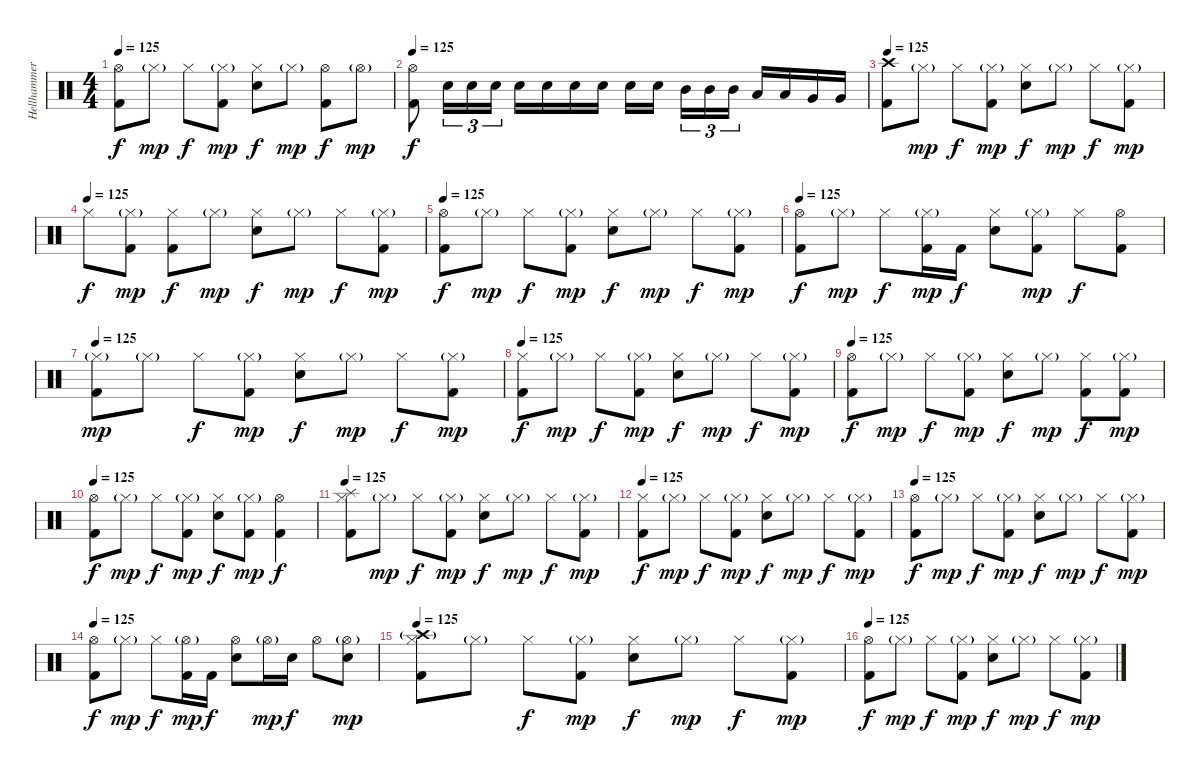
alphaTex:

\track ("Hellhammer" "Hellhammer") {instrument percussion}
\staff {score}
\articulation defaults
\ts (4 4)
\tempo 125
\clef neutral
\ks c
("Kick (hit) 2" "Hi-Hat (open)").8{dy f} "Hi-Hat (closed)"{g}.8{dy mp} "Hi-Hat (closed)".8{dy f} ("Kick (hit) 2" "Hi-Hat (closed)"{g}).8{dy mp} ("Electric Snare (hit)" "Hi-Hat (closed)").8{dy f} "Hi-Hat (closed)"{g}.8{dy mp} ("Kick (hit) 2" "Hi-Hat (open)").8{dy f} "Hi-Hat (open)"{g}.8{dy mp} |
\tempo 125
("Kick (hit) 2" "Hi-Hat (open)").8{dy f} "Electric Snare (hit)".16{tu (3 2)} "Electric Snare (hit)".16{tu (3 2)} "Electric Snare (hit)".16{tu (3 2)} "Electric Snare (hit)".16 "Electric Snare (hit)".16 "Electric Snare (hit)".16 "Electric Snare (hit)".16 "Electric Snare (hit)".16 "Electric Snare (hit)".16 "Mid Tom (hit)".16{tu (3 2)} "Mid Tom (hit)".16{tu (3 2)} "Mid Tom (hit)".16{tu (3 2)} "Low Tom (hit)".16 "Low Tom (hit)".16 "Very Low Tom (hit)".16 "Very Low Tom (hit)".16 |
\tempo 125
("Kick (hit) 2" "Crash high (hit)").8 "Hi-Hat (closed)"{g}.8{dy mp} "Hi-Hat (closed)".8{dy f} ("Kick (hit) 2" "Hi-Hat (closed)"{g}).8{dy mp} ("Electric Snare (hit)" "Hi-Hat (closed)").8{dy f} "Hi-Hat (closed)"{g}.8{dy mp} "Hi-Hat (closed)".8{dy f} ("Kick (hit) 2" "Hi-Hat (closed)"{g}).8{dy mp} |
\tempo (125)
"Hi-Hat (closed)".8{dy f} ("Kick (hit) 2" "Hi-Hat (closed)"{g}).8{dy mp} ("Kick (hit) 2" "Hi-Hat (closed)").8{dy f} "Hi-Hat (closed)"{g}.8{dy mp} ("Electric Snare (hit)" "Hi-Hat (closed)").8{dy f} "Hi-Hat (closed)"{g}.8{dy mp} "Hi-Hat (closed)".8{dy f} ("Kick (hit) 2" "Hi-Hat (closed)"{g}).8{dy mp} |
\tempo 125
("Kick (hit) 2" "Hi-Hat (open)").8{dy f} "Hi-Hat (closed)"{g}.8{dy mp} "Hi-Hat (closed)".8{dy f} ("Kick (hit) 2" "Hi-Hat (closed)"{g}).8{dy mp} ("Electric Snare (hit)" "Hi-Hat (closed)").8{dy f} "Hi-Hat (closed)"{g}.8{dy mp} "Hi-Hat (closed)".8{dy f} ("Kick (hit) 2" "Hi-Hat (closed)"{g}).8{dy mp} |
\tempo 125
("Kick (hit) 2" "Hi-Hat (open)").8{dy f} "Hi-Hat (closed)"{g}.8{dy mp} "Hi-Hat (closed)".8{dy f} ("Kick (hit) 2" "Hi-Hat (closed)"{g}).16{dy mp} "Kick (hit) 2".16{dy f} ("Electric Snare (hit)" "Hi-Hat (closed)").8 ("Kick (hit) 2" "Hi-Hat (closed)"{g}).8{dy mp} "Hi-Hat (closed)".8{dy f} ("Kick (hit) 2" "Hi-Hat (open)").8 |
\tempo 125
("Kick (hit) 2" "Hi-Hat (closed)"{g}).8{dy mp} "Hi-Hat (closed)"{g}.8 "Hi-Hat (closed)".8{dy f} ("Kick (hit) 2" "Hi-Hat (closed)"{g}).8{dy mp} ("Electric Snare (hit)" "Hi-Hat (closed)").8{dy f} "Hi-Hat (closed)"{g}.8{dy mp} "Hi-Hat (closed)".8{dy f} ("Kick (hit) 2" "Hi-Hat (closed)"{g}).8{dy mp} |
\tempo 125
("Kick (hit) 2" "Hi-Hat (closed)").8{dy f} "Hi-Hat (closed)"{g}.8{dy mp} "Hi-Hat (closed)".8{dy f} ("Kick (hit) 2" "Hi-Hat (closed)"{g}).8{dy mp} ("Electric Snare (hit)" "Hi-Hat (closed)").8{dy f} "Hi-Hat (closed)"{g}.8{dy mp} "Hi-Hat (closed)".8{dy f} ("Kick (hit) 2" "Hi-Hat (closed)"{g}).8{dy mp} |
\tempo 125
("Kick (hit) 2" "Hi-Hat (open)").8{dy f} "Hi-Hat (closed)"{g}.8{dy mp} "Hi-Hat (closed)".8{dy f} ("Kick (hit) 2" "Hi-Hat (closed)"{g}).8{dy mp} ("Electric Snare (hit)" "Hi-Hat (closed)").8{dy f} "Hi-Hat (closed)"{g}.8{dy mp} ("Kick (hit) 2" "Hi-Hat (closed)").8{dy f} ("Kick (hit) 2" "Hi-Hat (closed)"{g}).8{dy mp} |
\tempo 125
("Kick (hit) 2" "Hi-Hat (open)").8{dy f} "Hi-Hat (closed)"{g}.8{dy mp} "Hi-Hat (closed)".8{dy f} ("Kick (hit) 2" "Hi-Hat (closed)"{g}).8{dy mp} ("Electric Snare (hit)" "Hi-Hat (closed)").8{dy f} ("Kick (hit) 2" "Hi-Hat (closed)"{g}).8{dy mp} ("Kick (hit) 2" "Hi-Hat (open)").4{dy f} |
\tempo 125
("Kick (hit) 2" "Hi-Hat (closed)" "Splash (hit)").8 "Hi-Hat (closed)"{g}.8{dy mp} "Hi-Hat (closed)".8{dy f} ("Kick (hit) 2" "Hi-Hat (closed)"{g}).8{dy mp} ("Electric Snare (hit)" "Hi-Hat (closed)").8{dy f} "Hi-Hat (closed)"{g}.8{dy mp} "Hi-Hat (closed)".8{dy f} ("Kick (hit) 2" "Hi-Hat (closed)"{g}).8{dy mp} |
\tempo 125
("Kick (hit) 2" "Hi-Hat (closed)").8{dy f} "Hi-Hat (closed)"{g}.8{dy mp} "Hi-Hat (closed)".8{dy f} ("Kick (hit) 2" "Hi-Hat (closed)"{g}).8{dy mp} ("Electric Snare (hit)" "Hi-Hat (closed)").8{dy f} "Hi-Hat (closed)"{g}.8{dy mp} "Hi-Hat (closed)".8{dy f} ("Kick (hit) 2" "Hi-Hat (closed)"{g}).8{dy mp} |
\tempo 125
("Kick (hit) 2" "Hi-Hat (open)").8{dy f} "Hi-Hat (closed)"{g}.8{dy mp} "Hi-Hat (closed)".8{dy f} ("Kick (hit) 2" "Hi-Hat (closed)"{g}).8{dy mp} ("Electric Snare (hit)" "Hi-Hat (closed)").8{dy f} "Hi-Hat (closed)"{g}.8{dy mp} "Hi-Hat (closed)".8{dy f} ("Kick (hit) 2" "Hi-Hat (closed)"{g}).8{dy mp} |
\tempo 125
("Kick (hit) 2" "Hi-Hat (open)").8{dy f} "Hi-Hat (closed)"{g}.8{dy mp} "Hi-Hat (closed)".8{dy f} ("Kick (hit) 2" "Hi-Hat (open)"{g}).16{dy mp} "Kick (hit) 2".16{dy f} ("Electric Snare (hit)" "Hi-Hat (open)").8 "Hi-Hat (open)"{g}.16{dy mp} "Electric Snare (hit)".16{dy f} "Hi-Hat (open)".8 ("Electric Snare (hit)" "Hi-Hat (open)"{g}).8{dy mp} |
\tempo 125
("Kick (hit) 2" "Hi-Hat (closed)" "Crash high (hit)"{g}).8 "Hi-Hat (closed)"{g}.8 "Hi-Hat (closed)".8{dy f} ("Kick (hit) 2" "Hi-Hat (closed)"{g}).8{dy mp} ("Electric Snare (hit)" "Hi-Hat (closed)").8{dy f} "Hi-Hat (closed)"{g}.8{dy mp} "Hi-Hat (closed)".8{dy f} ("Kick (hit) 2" "Hi-Hat (closed)"{g}).8{dy mp} |
\tempo 125
("Kick (hit) 2" "Hi-Hat (open)").8{dy f} "Hi-Hat (closed)"{g}.8{dy mp} "Hi-Hat (closed)".8{dy f} ("Kick (hit) 2" "Hi-Hat (closed)"{g}).8{dy mp} ("Electric Snare (hit)" "Hi-Hat (closed)").8{dy f} "Hi-Hat (closed)"{g}.8{dy mp} "Hi-Hat (closed)".8{dy f} ("Kick (hit) 2" "Hi-Hat (closed)"{g}).8{dy mp}
